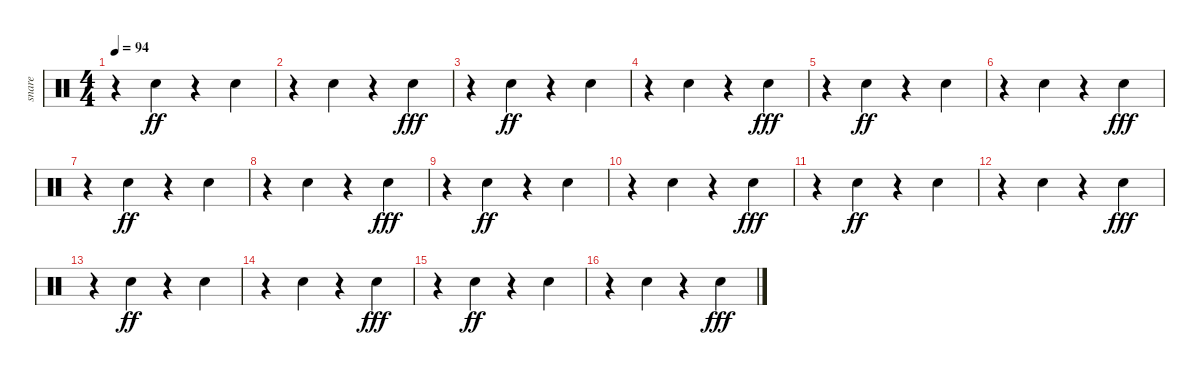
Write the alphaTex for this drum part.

\track ("snare" "snare") {instrument percussion}
\staff {score}
\articulation defaults
\ts (4 4)
\tempo 94
\clef neutral
\ks c
r.4{dy fff} "Electric Snare (hit)".4{dy ff} r.4 "Electric Snare (hit)".4 |
r.4 "Electric Snare (hit)".4 r.4 "Electric Snare (hit)".4{dy fff} |
r.4 "Electric Snare (hit)".4{dy ff} r.4 "Electric Snare (hit)".4 |
r.4 "Electric Snare (hit)".4 r.4 "Electric Snare (hit)".4{dy fff} |
r.4 "Electric Snare (hit)".4{dy ff} r.4 "Electric Snare (hit)".4 |
r.4 "Electric Snare (hit)".4 r.4 "Electric Snare (hit)".4{dy fff} |
r.4 "Electric Snare (hit)".4{dy ff} r.4 "Electric Snare (hit)".4 |
r.4 "Electric Snare (hit)".4 r.4 "Electric Snare (hit)".4{dy fff} |
r.4 "Electric Snare (hit)".4{dy ff} r.4 "Electric Snare (hit)".4 |
r.4 "Electric Snare (hit)".4 r.4 "Electric Snare (hit)".4{dy fff} |
r.4 "Electric Snare (hit)".4{dy ff} r.4 "Electric Snare (hit)".4 |
r.4 "Electric Snare (hit)".4 r.4 "Electric Snare (hit)".4{dy fff} |
r.4 "Electric Snare (hit)".4{dy ff} r.4 "Electric Snare (hit)".4 |
r.4 "Electric Snare (hit)".4 r.4 "Electric Snare (hit)".4{dy fff} |
r.4 "Electric Snare (hit)".4{dy ff} r.4 "Electric Snare (hit)".4 |
r.4 "Electric Snare (hit)".4 r.4 "Electric Snare (hit)".4{dy fff}
